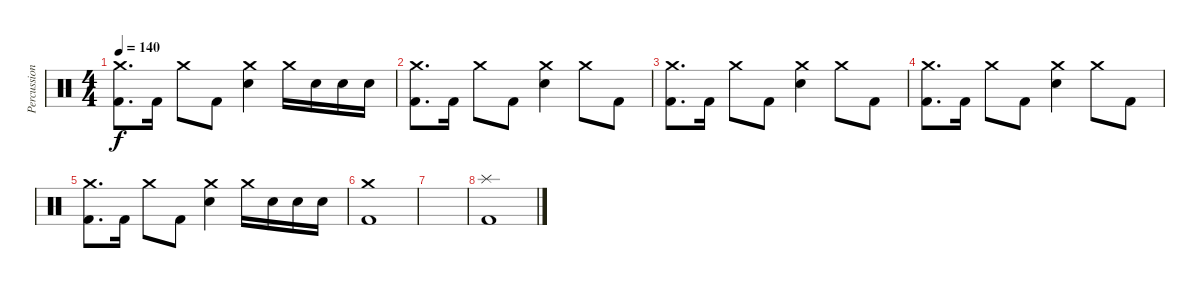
\track ("Percussion" "Percussion") {instrument percussion}
\staff {score}
\articulation defaults
\ts (4 4)
\tempo 140
\clef neutral
\ks c
("Crash medium (hit)" "Kick (hit) 2").8{d dy f} "Kick (hit) 2".16 "Crash medium (hit)".8 "Kick (hit) 2".8 ("Crash medium (hit)" "Electric Snare (hit)").4 "Crash medium (hit)".16 "Electric Snare (hit)".16 "Electric Snare (hit)".16 "Electric Snare (hit)".16 |
("Crash medium (hit)" "Kick (hit) 2").8{d} "Kick (hit) 2".16 "Crash medium (hit)".8 "Kick (hit) 2".8 ("Crash medium (hit)" "Electric Snare (hit)").4 "Crash medium (hit)".8 "Kick (hit) 2".8 |
("Crash medium (hit)" "Kick (hit) 2").8{d} "Kick (hit) 2".16 "Crash medium (hit)".8 "Kick (hit) 2".8 ("Crash medium (hit)" "Electric Snare (hit)").4 "Crash medium (hit)".8 "Kick (hit) 2".8 |
("Crash medium (hit)" "Kick (hit) 2").8{d} "Kick (hit) 2".16 "Crash medium (hit)".8 "Kick (hit) 2".8 ("Crash medium (hit)" "Electric Snare (hit)").4 "Crash medium (hit)".8 "Kick (hit) 2".8 |
("Crash medium (hit)" "Kick (hit) 2").8{d} "Kick (hit) 2".16 "Crash medium (hit)".8 "Kick (hit) 2".8 ("Crash medium (hit)" "Electric Snare (hit)").4 "Crash medium (hit)".16 "Electric Snare (hit)".16 "Electric Snare (hit)".16 "Electric Snare (hit)".16 |
("Crash medium (hit)" "Kick (hit) 2").1 |
|
("Splash (hit)" "Kick (hit) 2").1
